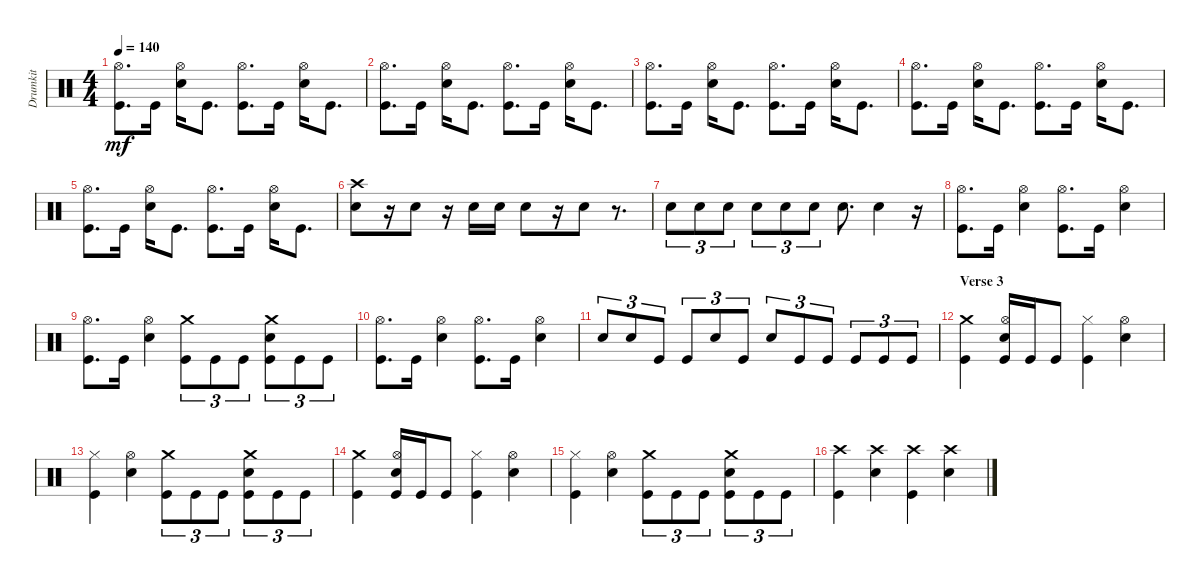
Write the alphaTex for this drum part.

\track ("Drumkit" "Drumkit") {instrument percussion}
\staff {score}
\articulation defaults
\ts (4 4)
\tempo 140
\clef neutral
\ks c
("Kick (hit)" "Hi-Hat (open)").8{d dy mf} "Kick (hit)".16 ("Snare (hit) 2" "Hi-Hat (open)").16 "Kick (hit)".8{d} ("Kick (hit)" "Hi-Hat (open)").8{d} "Kick (hit)".16 ("Snare (hit) 2" "Hi-Hat (open)").16 "Kick (hit)".8{d} |
("Kick (hit)" "Hi-Hat (open)").8{d} "Kick (hit)".16 ("Snare (hit) 2" "Hi-Hat (open)").16 "Kick (hit)".8{d} ("Kick (hit)" "Hi-Hat (open)").8{d} "Kick (hit)".16 ("Snare (hit) 2" "Hi-Hat (open)").16 "Kick (hit)".8{d} |
("Kick (hit)" "Hi-Hat (open)").8{d} "Kick (hit)".16 ("Snare (hit) 2" "Hi-Hat (open)").16 "Kick (hit)".8{d} ("Kick (hit)" "Hi-Hat (open)").8{d} "Kick (hit)".16 ("Snare (hit) 2" "Hi-Hat (open)").16 "Kick (hit)".8{d} |
("Kick (hit)" "Hi-Hat (open)").8{d} "Kick (hit)".16 ("Snare (hit) 2" "Hi-Hat (open)").16 "Kick (hit)".8{d} ("Kick (hit)" "Hi-Hat (open)").8{d} "Kick (hit)".16 ("Snare (hit) 2" "Hi-Hat (open)").16 "Kick (hit)".8{d} |
("Kick (hit)" "Hi-Hat (open)").8{d} "Kick (hit)".16 ("Snare (hit) 2" "Hi-Hat (open)").16 "Kick (hit)".8{d} ("Kick (hit)" "Hi-Hat (open)").8{d} "Kick (hit)".16 ("Snare (hit) 2" "Hi-Hat (open)").16 "Kick (hit)".8{d} |
("Snare (hit) 2" "Crash high (hit)").8 r.16 "Snare (hit) 2".8 r.16 "Snare (hit) 2".16 "Snare (hit) 2".16 "Snare (hit) 2".8 r.16 "Snare (hit) 2".8 r.8{d} |
"Snare (hit) 2".8{tu (3 2)} "Snare (hit) 2".8{tu (3 2)} "Snare (hit) 2".8{tu (3 2)} "Snare (hit) 2".8{tu (3 2)} "Snare (hit) 2".8{tu (3 2)} "Snare (hit) 2".8{tu (3 2)} "Snare (hit) 2".8{d} "Snare (hit) 2".4 r.16 |
("Kick (hit)" "Hi-Hat (open)").8{d} "Kick (hit)".16 ("Snare (hit) 2" "Hi-Hat (open)").4 ("Kick (hit)" "Hi-Hat (open)").8{d} "Kick (hit)".16 ("Snare (hit) 2" "Hi-Hat (open)").4 |
("Kick (hit)" "Hi-Hat (open)").8{d} "Kick (hit)".16 ("Snare (hit) 2" "Hi-Hat (open)").4 ("Kick (hit)" "Crash medium (hit)").8{tu (3 2)} "Kick (hit)".8{tu (3 2)} "Kick (hit)".8{tu (3 2)} ("Kick (hit)" "Crash medium (hit)" "Snare (hit) 2").8{tu (3 2)} "Kick (hit)".8{tu (3 2)} "Kick (hit)".8{tu (3 2)} |
("Kick (hit)" "Hi-Hat (open)").8{d} "Kick (hit)".16 ("Snare (hit) 2" "Hi-Hat (open)").4 ("Kick (hit)" "Hi-Hat (open)").8{d} "Kick (hit)".16 ("Snare (hit) 2" "Hi-Hat (open)").4 |
"Snare (hit) 2".8{tu (3 2)} "Snare (hit) 2".8{tu (3 2)} "Kick (hit)".8{tu (3 2)} "Kick (hit)".8{tu (3 2)} "Snare (hit) 2".8{tu (3 2)} "Kick (hit)".8{tu (3 2)} "Snare (hit) 2".8{tu (3 2)} "Kick (hit)".8{tu (3 2)} "Kick (hit)".8{tu (3 2)} "Kick (hit)".8{tu (3 2)} "Kick (hit)".8{tu (3 2)} "Kick (hit)".8{tu (3 2)} |
\section ("" "Verse 3")
("Kick (hit)" "Crash medium (hit)").4 ("Snare (hit) 2" "Kick (hit)" "Hi-Hat (open)").16 "Kick (hit)".16 "Kick (hit)".8 ("Kick (hit)" "Hi-Hat (closed)").4 ("Snare (hit) 2" "Hi-Hat (open)").4 |
("Kick (hit)" "Hi-Hat (closed)").4 ("Snare (hit) 2" "Hi-Hat (open)").4 ("Kick (hit)" "Crash medium (hit)").8{tu (3 2)} "Kick (hit)".8{tu (3 2)} "Kick (hit)".8{tu (3 2)} ("Kick (hit)" "Snare (hit) 2" "Crash medium (hit)").8{tu (3 2)} "Kick (hit)".8{tu (3 2)} "Kick (hit)".8{tu (3 2)} |
("Kick (hit)" "Crash medium (hit)").4 ("Snare (hit) 2" "Kick (hit)" "Hi-Hat (open)").16 "Kick (hit)".16 "Kick (hit)".8 ("Kick (hit)" "Hi-Hat (closed)").4 ("Snare (hit) 2" "Hi-Hat (open)").4 |
("Kick (hit)" "Hi-Hat (closed)").4 ("Snare (hit) 2" "Hi-Hat (open)").4 ("Kick (hit)" "Crash medium (hit)").8{tu (3 2)} "Kick (hit)".8{tu (3 2)} "Kick (hit)".8{tu (3 2)} ("Kick (hit)" "Snare (hit) 2" "Crash medium (hit)").8{tu (3 2)} "Kick (hit)".8{tu (3 2)} "Kick (hit)".8{tu (3 2)} |
("Kick (hit)" "Crash high (hit)").4 ("Snare (hit) 2" "Crash high (hit)").4 ("Kick (hit)" "Crash high (hit)").4 ("Snare (hit) 2" "Crash high (hit)").4
